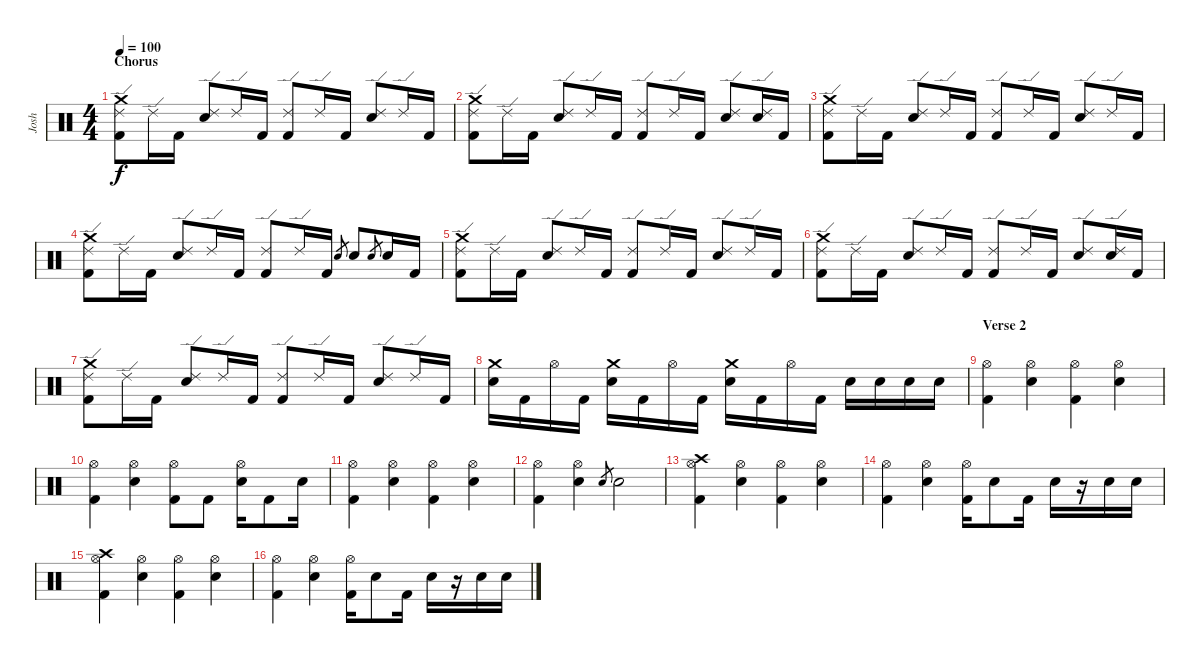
\track ("Josh" "Josh") {instrument percussion}
\staff {score}
\articulation defaults
\ts (4 4)
\section ("" "Chorus")
\tempo 100
\clef neutral
\ks c
("Crash medium (hit)" "Ride (edge) 2" "Kick (hit) 2").8{dy f} "Ride (edge) 2".16 "Kick (hit) 2".16 ("Ride (edge) 2" "Electric Snare (hit)").8 "Ride (edge) 2".16 "Kick (hit) 2".16 ("Ride (edge) 2" "Kick (hit) 2").8 "Ride (edge) 2".16 "Kick (hit) 2".16 ("Ride (edge) 2" "Electric Snare (hit)").8 "Ride (edge) 2".16 "Kick (hit) 2".16 |
("Crash medium (hit)" "Ride (edge) 2" "Kick (hit) 2").8 "Ride (edge) 2".16 "Kick (hit) 2".16 ("Ride (edge) 2" "Electric Snare (hit)").8 "Ride (edge) 2".16 "Kick (hit) 2".16 ("Ride (edge) 2" "Kick (hit) 2").8 "Ride (edge) 2".16 "Kick (hit) 2".16 ("Ride (edge) 2" "Electric Snare (hit)").8 ("Ride (edge) 2" "Electric Snare (hit)").16 "Kick (hit) 2".16 |
("Crash medium (hit)" "Ride (edge) 2" "Kick (hit) 2").8 "Ride (edge) 2".16 "Kick (hit) 2".16 ("Ride (edge) 2" "Electric Snare (hit)").8 "Ride (edge) 2".16 "Kick (hit) 2".16 ("Ride (edge) 2" "Kick (hit) 2").8 "Ride (edge) 2".16 "Kick (hit) 2".16 ("Ride (edge) 2" "Electric Snare (hit)").8 "Ride (edge) 2".16 "Kick (hit) 2".16 |
("Crash medium (hit)" "Ride (edge) 2" "Kick (hit) 2").8 "Ride (edge) 2".16 "Kick (hit) 2".16 ("Ride (edge) 2" "Electric Snare (hit)").8 "Ride (edge) 2".16 "Kick (hit) 2".16 ("Ride (edge) 2" "Kick (hit) 2").8 "Ride (edge) 2".16 "Kick (hit) 2".16 "Electric Snare (hit)".8{gr} "Electric Snare (hit)".8 "Electric Snare (hit)".8{gr} "Electric Snare (hit)".16 "Kick (hit) 2".16 |
("Crash medium (hit)" "Ride (edge) 2" "Kick (hit) 2").8 "Ride (edge) 2".16 "Kick (hit) 2".16 ("Ride (edge) 2" "Electric Snare (hit)").8 "Ride (edge) 2".16 "Kick (hit) 2".16 ("Ride (edge) 2" "Kick (hit) 2").8 "Ride (edge) 2".16 "Kick (hit) 2".16 ("Ride (edge) 2" "Electric Snare (hit)").8 "Ride (edge) 2".16 "Kick (hit) 2".16 |
("Crash medium (hit)" "Ride (edge) 2" "Kick (hit) 2").8 "Ride (edge) 2".16 "Kick (hit) 2".16 ("Ride (edge) 2" "Electric Snare (hit)").8 "Ride (edge) 2".16 "Kick (hit) 2".16 ("Ride (edge) 2" "Kick (hit) 2").8 "Ride (edge) 2".16 "Kick (hit) 2".16 ("Ride (edge) 2" "Electric Snare (hit)").8 ("Ride (edge) 2" "Electric Snare (hit)").16 "Kick (hit) 2".16 |
("Crash medium (hit)" "Ride (edge) 2" "Kick (hit) 2").8 "Ride (edge) 2".16 "Kick (hit) 2".16 ("Ride (edge) 2" "Electric Snare (hit)").8 "Ride (edge) 2".16 "Kick (hit) 2".16 ("Ride (edge) 2" "Kick (hit) 2").8 "Ride (edge) 2".16 "Kick (hit) 2".16 ("Ride (edge) 2" "Electric Snare (hit)").8 "Ride (edge) 2".16 "Kick (hit) 2".16 |
("Crash medium (hit)" "Electric Snare (hit)").16 "Kick (hit) 2".16 "Hi-Hat (open)".16 "Kick (hit) 2".16 ("Crash medium (hit)" "Electric Snare (hit)").16 "Kick (hit) 2".16 "Hi-Hat (open)".16 "Kick (hit) 2".16 ("Crash medium (hit)" "Electric Snare (hit)").16 "Kick (hit) 2".16 "Hi-Hat (open)".16 "Kick (hit) 2".16 "Electric Snare (hit)".16 "Electric Snare (hit)".16 "Electric Snare (hit)".16 "Electric Snare (hit)".16 |
\section ("" "Verse 2")
("Hi-Hat (open)" "Kick (hit) 2").4 ("Hi-Hat (open)" "Electric Snare (hit)").4 ("Hi-Hat (open)" "Kick (hit) 2").4 ("Hi-Hat (open)" "Electric Snare (hit)").4 |
("Hi-Hat (open)" "Kick (hit) 2").4 ("Hi-Hat (open)" "Electric Snare (hit)").4 ("Hi-Hat (open)" "Kick (hit) 2").8 "Kick (hit) 2".8 ("Hi-Hat (open)" "Electric Snare (hit)").16 "Kick (hit) 2".8 "Electric Snare (hit)".16 |
("Hi-Hat (open)" "Kick (hit) 2").4 ("Hi-Hat (open)" "Electric Snare (hit)").4 ("Hi-Hat (open)" "Kick (hit) 2").4 ("Hi-Hat (open)" "Electric Snare (hit)").4 |
("Hi-Hat (open)" "Kick (hit) 2").4 ("Hi-Hat (open)" "Electric Snare (hit)").4 "Electric Snare (hit)".8{gr} "Electric Snare (hit)".2 |
("Crash high (hit)" "Hi-Hat (open)" "Kick (hit) 2").4 ("Hi-Hat (open)" "Electric Snare (hit)").4 ("Hi-Hat (open)" "Kick (hit) 2").4 ("Hi-Hat (open)" "Electric Snare (hit)").4 |
("Hi-Hat (open)" "Kick (hit) 2").4 ("Hi-Hat (open)" "Electric Snare (hit)").4 ("Hi-Hat (open)" "Kick (hit) 2").16 "Electric Snare (hit)".8 "Kick (hit) 2".16 "Electric Snare (hit)".16 r.16 "Electric Snare (hit)".16 "Electric Snare (hit)".16 |
("Crash high (hit)" "Hi-Hat (open)" "Kick (hit) 2").4 ("Hi-Hat (open)" "Electric Snare (hit)").4 ("Hi-Hat (open)" "Kick (hit) 2").4 ("Hi-Hat (open)" "Electric Snare (hit)").4 |
("Hi-Hat (open)" "Kick (hit) 2").4 ("Hi-Hat (open)" "Electric Snare (hit)").4 ("Hi-Hat (open)" "Kick (hit) 2").16 "Electric Snare (hit)".8 "Kick (hit) 2".16 "Electric Snare (hit)".16 r.16 "Electric Snare (hit)".16 "Electric Snare (hit)".16
